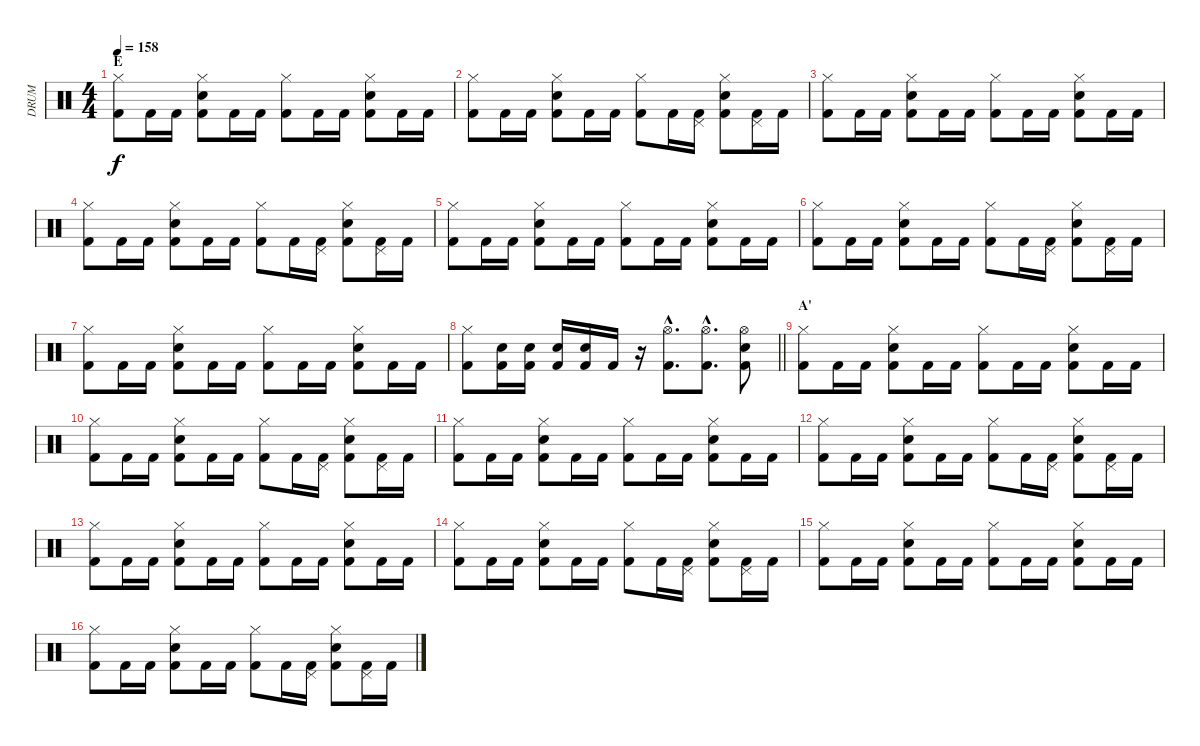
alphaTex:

\track ("DRUM" "DRUM") {instrument percussion}
\staff {score}
\articulation defaults
\ts (4 4)
\section ("" "E")
\tempo 158
\clef neutral
\ks c
("Hi-Hat (closed)" "Kick (hit) 2").8{dy f} "Kick (hit) 2".16 "Kick (hit) 2".16 ("Hi-Hat (closed)" "Snare (hit) 2" "Kick (hit) 2").8 "Kick (hit) 2".16 "Kick (hit) 2".16 ("Hi-Hat (closed)" "Kick (hit) 2").8 "Kick (hit) 2".16 "Kick (hit) 2".16 ("Hi-Hat (closed)" "Snare (hit) 2" "Kick (hit) 2").8 "Kick (hit) 2".16 "Kick (hit) 2".16 |
("Hi-Hat (closed)" "Kick (hit) 2").8 "Kick (hit) 2".16 "Kick (hit) 2".16 ("Hi-Hat (closed)" "Snare (hit) 2" "Kick (hit) 2").8 "Kick (hit) 2".16 "Kick (hit) 2".16 ("Hi-Hat (closed)" "Kick (hit) 2").8 "Kick (hit) 2".16 ("Pedal Hi-Hat (hit)" "Kick (hit) 2").16 ("Hi-Hat (closed)" "Snare (hit) 2" "Kick (hit) 2").8 ("Pedal Hi-Hat (hit)" "Kick (hit) 2").16 "Kick (hit) 2".16 |
("Hi-Hat (closed)" "Kick (hit) 2").8 "Kick (hit) 2".16 "Kick (hit) 2".16 ("Hi-Hat (closed)" "Snare (hit) 2" "Kick (hit) 2").8 "Kick (hit) 2".16 "Kick (hit) 2".16 ("Hi-Hat (closed)" "Kick (hit) 2").8 "Kick (hit) 2".16 "Kick (hit) 2".16 ("Hi-Hat (closed)" "Snare (hit) 2" "Kick (hit) 2").8 "Kick (hit) 2".16 "Kick (hit) 2".16 |
("Hi-Hat (closed)" "Kick (hit) 2").8 "Kick (hit) 2".16 "Kick (hit) 2".16 ("Hi-Hat (closed)" "Snare (hit) 2" "Kick (hit) 2").8 "Kick (hit) 2".16 "Kick (hit) 2".16 ("Hi-Hat (closed)" "Kick (hit) 2").8 "Kick (hit) 2".16 ("Pedal Hi-Hat (hit)" "Kick (hit) 2").16 ("Hi-Hat (closed)" "Snare (hit) 2" "Kick (hit) 2").8 ("Pedal Hi-Hat (hit)" "Kick (hit) 2").16 "Kick (hit) 2".16 |
("Hi-Hat (closed)" "Kick (hit) 2").8 "Kick (hit) 2".16 "Kick (hit) 2".16 ("Hi-Hat (closed)" "Snare (hit) 2" "Kick (hit) 2").8 "Kick (hit) 2".16 "Kick (hit) 2".16 ("Hi-Hat (closed)" "Kick (hit) 2").8 "Kick (hit) 2".16 "Kick (hit) 2".16 ("Hi-Hat (closed)" "Snare (hit) 2" "Kick (hit) 2").8 "Kick (hit) 2".16 "Kick (hit) 2".16 |
("Hi-Hat (closed)" "Kick (hit) 2").8 "Kick (hit) 2".16 "Kick (hit) 2".16 ("Hi-Hat (closed)" "Snare (hit) 2" "Kick (hit) 2").8 "Kick (hit) 2".16 "Kick (hit) 2".16 ("Hi-Hat (closed)" "Kick (hit) 2").8 "Kick (hit) 2".16 ("Pedal Hi-Hat (hit)" "Kick (hit) 2").16 ("Hi-Hat (closed)" "Snare (hit) 2" "Kick (hit) 2").8 ("Pedal Hi-Hat (hit)" "Kick (hit) 2").16 "Kick (hit) 2".16 |
("Hi-Hat (closed)" "Kick (hit) 2").8 "Kick (hit) 2".16 "Kick (hit) 2".16 ("Hi-Hat (closed)" "Snare (hit) 2" "Kick (hit) 2").8 "Kick (hit) 2".16 "Kick (hit) 2".16 ("Hi-Hat (closed)" "Kick (hit) 2").8 "Kick (hit) 2".16 "Kick (hit) 2".16 ("Hi-Hat (closed)" "Snare (hit) 2" "Kick (hit) 2").8 "Kick (hit) 2".16 "Kick (hit) 2".16 |
\barLineRight lightlight
("Hi-Hat (closed)" "Kick (hit) 2").8 ("Snare (hit) 2" "Kick (hit) 2").16 ("Snare (hit) 2" "Kick (hit) 2").16 ("Snare (hit) 2" "Kick (hit) 2").16 ("Snare (hit) 2" "Kick (hit) 2").16 "Kick (hit) 2".16 r.16 ("Hi-Hat (open)"{hac} "Kick (hit) 2"{hac}).8{d} ("Hi-Hat (open)"{hac} "Kick (hit) 2"{hac}).8{d} ("Hi-Hat (open)" "Snare (hit) 2" "Kick (hit) 2").8 |
\section ("" "A'")
("Hi-Hat (closed)" "Kick (hit) 2").8 "Kick (hit) 2".16 "Kick (hit) 2".16 ("Hi-Hat (closed)" "Snare (hit) 2" "Kick (hit) 2").8 "Kick (hit) 2".16 "Kick (hit) 2".16 ("Hi-Hat (closed)" "Kick (hit) 2").8 "Kick (hit) 2".16 "Kick (hit) 2".16 ("Hi-Hat (closed)" "Snare (hit) 2" "Kick (hit) 2").8 "Kick (hit) 2".16 "Kick (hit) 2".16 |
("Hi-Hat (closed)" "Kick (hit) 2").8 "Kick (hit) 2".16 "Kick (hit) 2".16 ("Hi-Hat (closed)" "Snare (hit) 2" "Kick (hit) 2").8 "Kick (hit) 2".16 "Kick (hit) 2".16 ("Hi-Hat (closed)" "Kick (hit) 2").8 "Kick (hit) 2".16 ("Pedal Hi-Hat (hit)" "Kick (hit) 2").16 ("Hi-Hat (closed)" "Snare (hit) 2" "Kick (hit) 2").8 ("Pedal Hi-Hat (hit)" "Kick (hit) 2").16 "Kick (hit) 2".16 |
("Hi-Hat (closed)" "Kick (hit) 2").8 "Kick (hit) 2".16 "Kick (hit) 2".16 ("Hi-Hat (closed)" "Snare (hit) 2" "Kick (hit) 2").8 "Kick (hit) 2".16 "Kick (hit) 2".16 ("Hi-Hat (closed)" "Kick (hit) 2").8 "Kick (hit) 2".16 "Kick (hit) 2".16 ("Hi-Hat (closed)" "Snare (hit) 2" "Kick (hit) 2").8 "Kick (hit) 2".16 "Kick (hit) 2".16 |
("Hi-Hat (closed)" "Kick (hit) 2").8 "Kick (hit) 2".16 "Kick (hit) 2".16 ("Hi-Hat (closed)" "Snare (hit) 2" "Kick (hit) 2").8 "Kick (hit) 2".16 "Kick (hit) 2".16 ("Hi-Hat (closed)" "Kick (hit) 2").8 "Kick (hit) 2".16 ("Pedal Hi-Hat (hit)" "Kick (hit) 2").16 ("Hi-Hat (closed)" "Snare (hit) 2" "Kick (hit) 2").8 ("Pedal Hi-Hat (hit)" "Kick (hit) 2").16 "Kick (hit) 2".16 |
("Hi-Hat (closed)" "Kick (hit) 2").8 "Kick (hit) 2".16 "Kick (hit) 2".16 ("Hi-Hat (closed)" "Snare (hit) 2" "Kick (hit) 2").8 "Kick (hit) 2".16 "Kick (hit) 2".16 ("Hi-Hat (closed)" "Kick (hit) 2").8 "Kick (hit) 2".16 "Kick (hit) 2".16 ("Hi-Hat (closed)" "Snare (hit) 2" "Kick (hit) 2").8 "Kick (hit) 2".16 "Kick (hit) 2".16 |
("Hi-Hat (closed)" "Kick (hit) 2").8 "Kick (hit) 2".16 "Kick (hit) 2".16 ("Hi-Hat (closed)" "Snare (hit) 2" "Kick (hit) 2").8 "Kick (hit) 2".16 "Kick (hit) 2".16 ("Hi-Hat (closed)" "Kick (hit) 2").8 "Kick (hit) 2".16 ("Pedal Hi-Hat (hit)" "Kick (hit) 2").16 ("Hi-Hat (closed)" "Snare (hit) 2" "Kick (hit) 2").8 ("Pedal Hi-Hat (hit)" "Kick (hit) 2").16 "Kick (hit) 2".16 |
("Hi-Hat (closed)" "Kick (hit) 2").8 "Kick (hit) 2".16 "Kick (hit) 2".16 ("Hi-Hat (closed)" "Snare (hit) 2" "Kick (hit) 2").8 "Kick (hit) 2".16 "Kick (hit) 2".16 ("Hi-Hat (closed)" "Kick (hit) 2").8 "Kick (hit) 2".16 "Kick (hit) 2".16 ("Hi-Hat (closed)" "Snare (hit) 2" "Kick (hit) 2").8 "Kick (hit) 2".16 "Kick (hit) 2".16 |
("Hi-Hat (closed)" "Kick (hit) 2").8 "Kick (hit) 2".16 "Kick (hit) 2".16 ("Hi-Hat (closed)" "Snare (hit) 2" "Kick (hit) 2").8 "Kick (hit) 2".16 "Kick (hit) 2".16 ("Hi-Hat (closed)" "Kick (hit) 2").8 "Kick (hit) 2".16 ("Pedal Hi-Hat (hit)" "Kick (hit) 2").16 ("Hi-Hat (closed)" "Snare (hit) 2" "Kick (hit) 2").8 ("Pedal Hi-Hat (hit)" "Kick (hit) 2").16 "Kick (hit) 2".16
